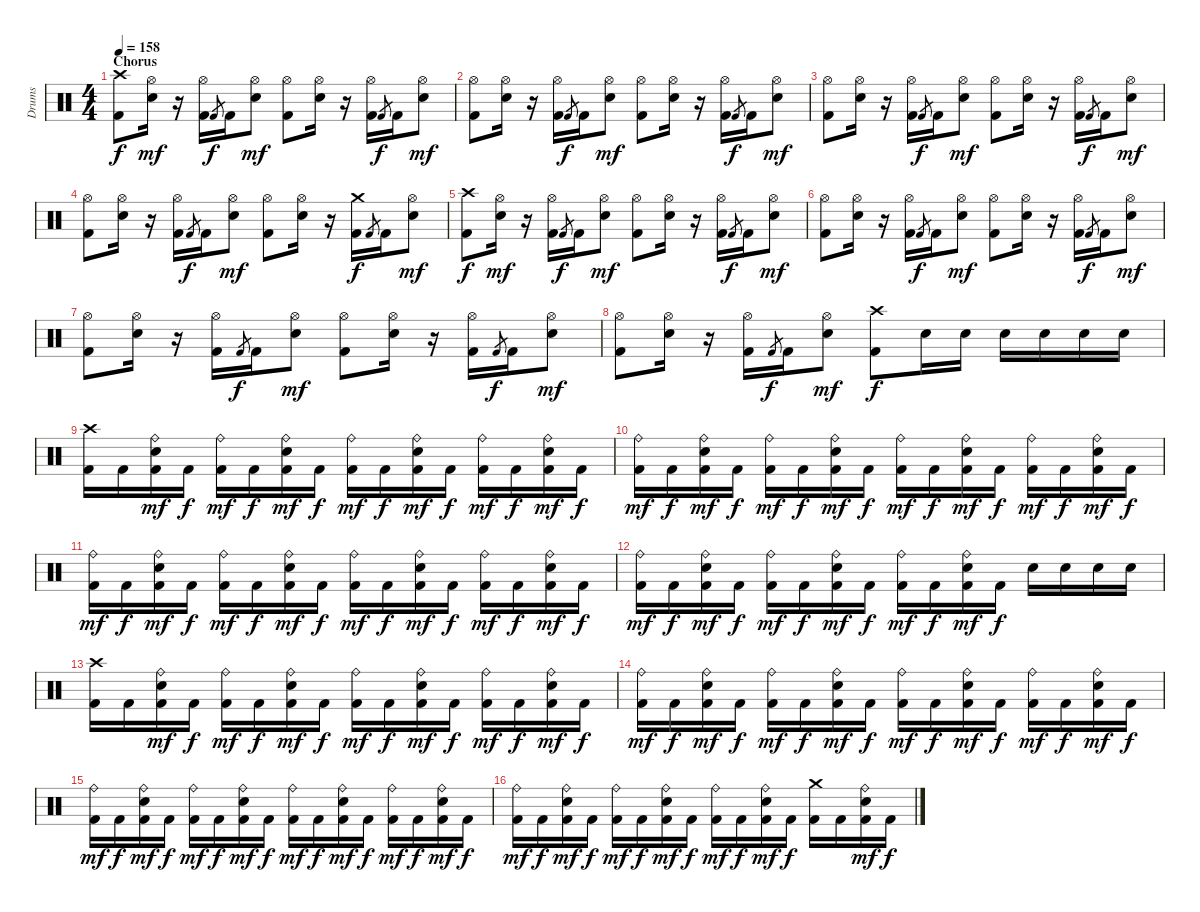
\track ("Drums" "Drums") {instrument percussion}
\staff {score}
\articulation defaults
\ts (4 4)
\section ("" "Chorus")
\tempo 158
\clef neutral
\ks c
("Crash high (hit)" "Kick (hit) 2").8{dy f} ("Hi-Hat (open)" "Electric Snare (hit)").16{dy mf} r.16 ("Hi-Hat (open)" "Kick (hit) 2").16 "Kick (hit) 2".8{gr dy f} "Kick (hit) 2".16 ("Hi-Hat (open)" "Electric Snare (hit)").8{dy mf} ("Hi-Hat (open)" "Kick (hit) 2").8 ("Hi-Hat (open)" "Electric Snare (hit)").16 r.16 ("Hi-Hat (open)" "Kick (hit) 2").16 "Kick (hit) 2".8{gr dy f} "Kick (hit) 2".16 ("Hi-Hat (open)" "Electric Snare (hit)").8{dy mf} |
("Hi-Hat (open)" "Kick (hit) 2").8 ("Hi-Hat (open)" "Electric Snare (hit)").16 r.16 ("Hi-Hat (open)" "Kick (hit) 2").16 "Kick (hit) 2".8{gr dy f} "Kick (hit) 2".16 ("Hi-Hat (open)" "Electric Snare (hit)").8{dy mf} ("Hi-Hat (open)" "Kick (hit) 2").8 ("Hi-Hat (open)" "Electric Snare (hit)").16 r.16 ("Hi-Hat (open)" "Kick (hit) 2").16 "Kick (hit) 2".8{gr dy f} "Kick (hit) 2".16 ("Hi-Hat (open)" "Electric Snare (hit)").8{dy mf} |
("Hi-Hat (open)" "Kick (hit) 2").8 ("Hi-Hat (open)" "Electric Snare (hit)").16 r.16 ("Hi-Hat (open)" "Kick (hit) 2").16 "Kick (hit) 2".8{gr dy f} "Kick (hit) 2".16 ("Hi-Hat (open)" "Electric Snare (hit)").8{dy mf} ("Hi-Hat (open)" "Kick (hit) 2").8 ("Hi-Hat (open)" "Electric Snare (hit)").16 r.16 ("Hi-Hat (open)" "Kick (hit) 2").16 "Kick (hit) 2".8{gr dy f} "Kick (hit) 2".16 ("Hi-Hat (open)" "Electric Snare (hit)").8{dy mf} |
("Hi-Hat (open)" "Kick (hit) 2").8 ("Hi-Hat (open)" "Electric Snare (hit)").16 r.16 ("Hi-Hat (open)" "Kick (hit) 2").16 "Kick (hit) 2".8{gr dy f} "Kick (hit) 2".16 ("Hi-Hat (open)" "Electric Snare (hit)").8{dy mf} ("Hi-Hat (open)" "Kick (hit) 2").8 ("Hi-Hat (open)" "Electric Snare (hit)").16 r.16 ("Crash medium (hit)" "Kick (hit) 2").16{dy f} "Kick (hit) 2".8{gr} "Kick (hit) 2".16 ("Hi-Hat (open)" "Electric Snare (hit)").8{dy mf} |
("Crash high (hit)" "Kick (hit) 2").8{dy f} ("Hi-Hat (open)" "Electric Snare (hit)").16{dy mf} r.16 ("Hi-Hat (open)" "Kick (hit) 2").16 "Kick (hit) 2".8{gr dy f} "Kick (hit) 2".16 ("Hi-Hat (open)" "Electric Snare (hit)").8{dy mf} ("Hi-Hat (open)" "Kick (hit) 2").8 ("Hi-Hat (open)" "Electric Snare (hit)").16 r.16 ("Hi-Hat (open)" "Kick (hit) 2").16 "Kick (hit) 2".8{gr dy f} "Kick (hit) 2".16 ("Hi-Hat (open)" "Electric Snare (hit)").8{dy mf} |
("Hi-Hat (open)" "Kick (hit) 2").8 ("Hi-Hat (open)" "Electric Snare (hit)").16 r.16 ("Hi-Hat (open)" "Kick (hit) 2").16 "Kick (hit) 2".8{gr dy f} "Kick (hit) 2".16 ("Hi-Hat (open)" "Electric Snare (hit)").8{dy mf} ("Hi-Hat (open)" "Kick (hit) 2").8 ("Hi-Hat (open)" "Electric Snare (hit)").16 r.16 ("Hi-Hat (open)" "Kick (hit) 2").16 "Kick (hit) 2".8{gr dy f} "Kick (hit) 2".16 ("Hi-Hat (open)" "Electric Snare (hit)").8{dy mf} |
("Hi-Hat (open)" "Kick (hit) 2").8 ("Hi-Hat (open)" "Electric Snare (hit)").16 r.16 ("Hi-Hat (open)" "Kick (hit) 2").16 "Kick (hit) 2".8{gr dy f} "Kick (hit) 2".16 ("Hi-Hat (open)" "Electric Snare (hit)").8{dy mf} ("Hi-Hat (open)" "Kick (hit) 2").8 ("Hi-Hat (open)" "Electric Snare (hit)").16 r.16 ("Hi-Hat (open)" "Kick (hit) 2").16 "Kick (hit) 2".8{gr dy f} "Kick (hit) 2".16 ("Hi-Hat (open)" "Electric Snare (hit)").8{dy mf} |
("Hi-Hat (open)" "Kick (hit) 2").8 ("Hi-Hat (open)" "Electric Snare (hit)").16 r.16 ("Hi-Hat (open)" "Kick (hit) 2").16 "Kick (hit) 2".8{gr dy f} "Kick (hit) 2".16 ("Hi-Hat (open)" "Electric Snare (hit)").8{dy mf} ("Crash high (hit)" "Kick (hit) 2").8{dy f} "Electric Snare (hit)".16 "Electric Snare (hit)".16 "Electric Snare (hit)".16 "Electric Snare (hit)".16 "Electric Snare (hit)".16 "Electric Snare (hit)".16 |
("Crash high (hit)" "Kick (hit) 2").16 "Kick (hit) 2".16 ("Ride (bell)" "Electric Snare (hit)" "Kick (hit) 2").16{dy mf} "Kick (hit) 2".16{dy f} ("Ride (bell)" "Kick (hit) 2").16{dy mf} "Kick (hit) 2".16{dy f} ("Ride (bell)" "Electric Snare (hit)" "Kick (hit) 2").16{dy mf} "Kick (hit) 2".16{dy f} ("Ride (bell)" "Kick (hit) 2").16{dy mf} "Kick (hit) 2".16{dy f} ("Ride (bell)" "Electric Snare (hit)" "Kick (hit) 2").16{dy mf} "Kick (hit) 2".16{dy f} ("Ride (bell)" "Kick (hit) 2").16{dy mf} "Kick (hit) 2".16{dy f} ("Ride (bell)" "Electric Snare (hit)" "Kick (hit) 2").16{dy mf} "Kick (hit) 2".16{dy f} |
("Ride (bell)" "Kick (hit) 2").16{dy mf} "Kick (hit) 2".16{dy f} ("Ride (bell)" "Electric Snare (hit)" "Kick (hit) 2").16{dy mf} "Kick (hit) 2".16{dy f} ("Ride (bell)" "Kick (hit) 2").16{dy mf} "Kick (hit) 2".16{dy f} ("Ride (bell)" "Electric Snare (hit)" "Kick (hit) 2").16{dy mf} "Kick (hit) 2".16{dy f} ("Ride (bell)" "Kick (hit) 2").16{dy mf} "Kick (hit) 2".16{dy f} ("Ride (bell)" "Electric Snare (hit)" "Kick (hit) 2").16{dy mf} "Kick (hit) 2".16{dy f} ("Ride (bell)" "Kick (hit) 2").16{dy mf} "Kick (hit) 2".16{dy f} ("Ride (bell)" "Electric Snare (hit)" "Kick (hit) 2").16{dy mf} "Kick (hit) 2".16{dy f} |
("Ride (bell)" "Kick (hit) 2").16{dy mf} "Kick (hit) 2".16{dy f} ("Ride (bell)" "Electric Snare (hit)" "Kick (hit) 2").16{dy mf} "Kick (hit) 2".16{dy f} ("Ride (bell)" "Kick (hit) 2").16{dy mf} "Kick (hit) 2".16{dy f} ("Ride (bell)" "Electric Snare (hit)" "Kick (hit) 2").16{dy mf} "Kick (hit) 2".16{dy f} ("Ride (bell)" "Kick (hit) 2").16{dy mf} "Kick (hit) 2".16{dy f} ("Ride (bell)" "Electric Snare (hit)" "Kick (hit) 2").16{dy mf} "Kick (hit) 2".16{dy f} ("Ride (bell)" "Kick (hit) 2").16{dy mf} "Kick (hit) 2".16{dy f} ("Ride (bell)" "Electric Snare (hit)" "Kick (hit) 2").16{dy mf} "Kick (hit) 2".16{dy f} |
("Ride (bell)" "Kick (hit) 2").16{dy mf} "Kick (hit) 2".16{dy f} ("Ride (bell)" "Electric Snare (hit)" "Kick (hit) 2").16{dy mf} "Kick (hit) 2".16{dy f} ("Ride (bell)" "Kick (hit) 2").16{dy mf} "Kick (hit) 2".16{dy f} ("Ride (bell)" "Electric Snare (hit)" "Kick (hit) 2").16{dy mf} "Kick (hit) 2".16{dy f} ("Ride (bell)" "Kick (hit) 2").16{dy mf} "Kick (hit) 2".16{dy f} ("Ride (bell)" "Electric Snare (hit)" "Kick (hit) 2").16{dy mf} "Kick (hit) 2".16{dy f} "Electric Snare (hit)".16 "Electric Snare (hit)".16 "Electric Snare (hit)".16 "Electric Snare (hit)".16 |
("Crash high (hit)" "Kick (hit) 2").16 "Kick (hit) 2".16 ("Ride (bell)" "Electric Snare (hit)" "Kick (hit) 2").16{dy mf} "Kick (hit) 2".16{dy f} ("Ride (bell)" "Kick (hit) 2").16{dy mf} "Kick (hit) 2".16{dy f} ("Ride (bell)" "Electric Snare (hit)" "Kick (hit) 2").16{dy mf} "Kick (hit) 2".16{dy f} ("Ride (bell)" "Kick (hit) 2").16{dy mf} "Kick (hit) 2".16{dy f} ("Ride (bell)" "Electric Snare (hit)" "Kick (hit) 2").16{dy mf} "Kick (hit) 2".16{dy f} ("Ride (bell)" "Kick (hit) 2").16{dy mf} "Kick (hit) 2".16{dy f} ("Ride (bell)" "Electric Snare (hit)" "Kick (hit) 2").16{dy mf} "Kick (hit) 2".16{dy f} |
("Ride (bell)" "Kick (hit) 2").16{dy mf} "Kick (hit) 2".16{dy f} ("Ride (bell)" "Electric Snare (hit)" "Kick (hit) 2").16{dy mf} "Kick (hit) 2".16{dy f} ("Ride (bell)" "Kick (hit) 2").16{dy mf} "Kick (hit) 2".16{dy f} ("Ride (bell)" "Electric Snare (hit)" "Kick (hit) 2").16{dy mf} "Kick (hit) 2".16{dy f} ("Ride (bell)" "Kick (hit) 2").16{dy mf} "Kick (hit) 2".16{dy f} ("Ride (bell)" "Electric Snare (hit)" "Kick (hit) 2").16{dy mf} "Kick (hit) 2".16{dy f} ("Ride (bell)" "Kick (hit) 2").16{dy mf} "Kick (hit) 2".16{dy f} ("Ride (bell)" "Electric Snare (hit)" "Kick (hit) 2").16{dy mf} "Kick (hit) 2".16{dy f} |
("Ride (bell)" "Kick (hit) 2").16{dy mf} "Kick (hit) 2".16{dy f} ("Ride (bell)" "Electric Snare (hit)" "Kick (hit) 2").16{dy mf} "Kick (hit) 2".16{dy f} ("Ride (bell)" "Kick (hit) 2").16{dy mf} "Kick (hit) 2".16{dy f} ("Ride (bell)" "Electric Snare (hit)" "Kick (hit) 2").16{dy mf} "Kick (hit) 2".16{dy f} ("Ride (bell)" "Kick (hit) 2").16{dy mf} "Kick (hit) 2".16{dy f} ("Ride (bell)" "Electric Snare (hit)" "Kick (hit) 2").16{dy mf} "Kick (hit) 2".16{dy f} ("Ride (bell)" "Kick (hit) 2").16{dy mf} "Kick (hit) 2".16{dy f} ("Ride (bell)" "Electric Snare (hit)" "Kick (hit) 2").16{dy mf} "Kick (hit) 2".16{dy f} |
("Ride (bell)" "Kick (hit) 2").16{dy mf} "Kick (hit) 2".16{dy f} ("Ride (bell)" "Electric Snare (hit)" "Kick (hit) 2").16{dy mf} "Kick (hit) 2".16{dy f} ("Ride (bell)" "Kick (hit) 2").16{dy mf} "Kick (hit) 2".16{dy f} ("Ride (bell)" "Electric Snare (hit)" "Kick (hit) 2").16{dy mf} "Kick (hit) 2".16{dy f} ("Ride (bell)" "Kick (hit) 2").16{dy mf} "Kick (hit) 2".16{dy f} ("Ride (bell)" "Electric Snare (hit)" "Kick (hit) 2").16{dy mf} "Kick (hit) 2".16{dy f} ("Crash medium (hit)" "Kick (hit) 2").16 "Kick (hit) 2".16 ("Ride (bell)" "Electric Snare (hit)" "Kick (hit) 2").16{dy mf} "Kick (hit) 2".16{dy f}
